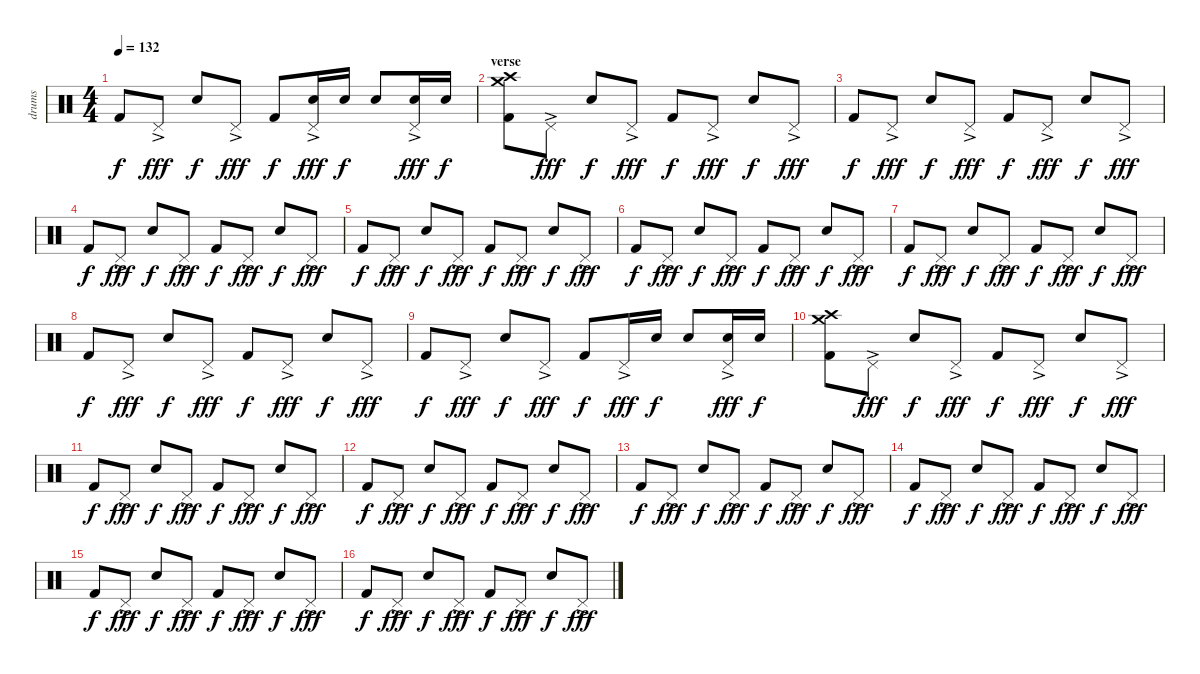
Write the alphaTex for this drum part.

\track ("drums" "drums") {instrument percussion}
\staff {score}
\articulation defaults
\ts (4 4)
\tempo 132
\clef neutral
\ks c "Kick (hit) 2".8{dy f} "Pedal Hi-Hat (hit)"{ac}.8{dy fff} "Snare (hit) 2".8{dy f} "Pedal Hi-Hat (hit)"{ac}.8{dy fff} "Kick (hit) 2".8{dy f}
("Pedal Hi-Hat (hit)"{ac} "Snare (hit) 2").16{dy fff} "Snare (hit) 2".16{dy f} "Snare (hit) 2".8 ("Pedal Hi-Hat (hit)"{ac} "Snare (hit) 2").16{dy fff} "Snare (hit) 2".16{dy f} |
\section ("" "verse")
("Kick (hit) 2" "Crash medium (hit)" "Crash high (hit)").8 "Pedal Hi-Hat (hit)"{ac}.8{dy fff} "Snare (hit) 2".8{dy f} "Pedal Hi-Hat (hit)"{ac}.8{dy fff} "Kick (hit) 2".8{dy f} "Pedal Hi-Hat (hit)"{ac}.8{dy fff} "Snare (hit) 2".8{dy f} "Pedal Hi-Hat (hit)"{ac}.8{dy fff} |
"Kick (hit) 2".8{dy f} "Pedal Hi-Hat (hit)"{ac}.8{dy fff} "Snare (hit) 2".8{dy f} "Pedal Hi-Hat (hit)"{ac}.8{dy fff} "Kick (hit) 2".8{dy f} "Pedal Hi-Hat (hit)"{ac}.8{dy fff} "Snare (hit) 2".8{dy f} "Pedal Hi-Hat (hit)"{ac}.8{dy fff} |
"Kick (hit) 2".8{dy f} "Pedal Hi-Hat (hit)"{ac}.8{dy fff} "Snare (hit) 2".8{dy f} "Pedal Hi-Hat (hit)"{ac}.8{dy fff} "Kick (hit) 2".8{dy f} "Pedal Hi-Hat (hit)"{ac}.8{dy fff} "Snare (hit) 2".8{dy f} "Pedal Hi-Hat (hit)"{ac}.8{dy fff} |
"Kick (hit) 2".8{dy f} "Pedal Hi-Hat (hit)"{ac}.8{dy fff} "Snare (hit) 2".8{dy f} "Pedal Hi-Hat (hit)"{ac}.8{dy fff} "Kick (hit) 2".8{dy f} "Pedal Hi-Hat (hit)"{ac}.8{dy fff} "Snare (hit) 2".8{dy f} "Pedal Hi-Hat (hit)"{ac}.8{dy fff} |
"Kick (hit) 2".8{dy f} "Pedal Hi-Hat (hit)"{ac}.8{dy fff} "Snare (hit) 2".8{dy f} "Pedal Hi-Hat (hit)"{ac}.8{dy fff} "Kick (hit) 2".8{dy f} "Pedal Hi-Hat (hit)"{ac}.8{dy fff} "Snare (hit) 2".8{dy f} "Pedal Hi-Hat (hit)"{ac}.8{dy fff} |
"Kick (hit) 2".8{dy f} "Pedal Hi-Hat (hit)"{ac}.8{dy fff} "Snare (hit) 2".8{dy f} "Pedal Hi-Hat (hit)"{ac}.8{dy fff} "Kick (hit) 2".8{dy f} "Pedal Hi-Hat (hit)"{ac}.8{dy fff} "Snare (hit) 2".8{dy f} "Pedal Hi-Hat (hit)"{ac}.8{dy fff} |
"Kick (hit) 2".8{dy f} "Pedal Hi-Hat (hit)"{ac}.8{dy fff} "Snare (hit) 2".8{dy f} "Pedal Hi-Hat (hit)"{ac}.8{dy fff} "Kick (hit) 2".8{dy f} "Pedal Hi-Hat (hit)"{ac}.8{dy fff} "Snare (hit) 2".8{dy f} "Pedal Hi-Hat (hit)"{ac}.8{dy fff} |
"Kick (hit) 2".8{dy f} "Pedal Hi-Hat (hit)"{ac}.8{dy fff} "Snare (hit) 2".8{dy f} "Pedal Hi-Hat (hit)"{ac}.8{dy fff} "Kick (hit) 2".8{dy f} "Pedal Hi-Hat (hit)"{ac}.16{dy fff} "Snare (hit) 2".16{dy f} "Snare (hit) 2".8 ("Pedal Hi-Hat (hit)"{ac} "Snare (hit) 2").16{dy fff} "Snare (hit) 2".16{dy f} |
("Kick (hit) 2" "Crash medium (hit)" "Crash high (hit)").8 "Pedal Hi-Hat (hit)"{ac}.8{dy fff} "Snare (hit) 2".8{dy f} "Pedal Hi-Hat (hit)"{ac}.8{dy fff} "Kick (hit) 2".8{dy f} "Pedal Hi-Hat (hit)"{ac}.8{dy fff} "Snare (hit) 2".8{dy f} "Pedal Hi-Hat (hit)"{ac}.8{dy fff} |
"Kick (hit) 2".8{dy f} "Pedal Hi-Hat (hit)"{ac}.8{dy fff} "Snare (hit) 2".8{dy f} "Pedal Hi-Hat (hit)"{ac}.8{dy fff} "Kick (hit) 2".8{dy f} "Pedal Hi-Hat (hit)"{ac}.8{dy fff} "Snare (hit) 2".8{dy f} "Pedal Hi-Hat (hit)"{ac}.8{dy fff} |
"Kick (hit) 2".8{dy f} "Pedal Hi-Hat (hit)"{ac}.8{dy fff} "Snare (hit) 2".8{dy f} "Pedal Hi-Hat (hit)"{ac}.8{dy fff} "Kick (hit) 2".8{dy f} "Pedal Hi-Hat (hit)"{ac}.8{dy fff} "Snare (hit) 2".8{dy f} "Pedal Hi-Hat (hit)"{ac}.8{dy fff} |
"Kick (hit) 2".8{dy f} "Pedal Hi-Hat (hit)"{ac}.8{dy fff} "Snare (hit) 2".8{dy f} "Pedal Hi-Hat (hit)"{ac}.8{dy fff} "Kick (hit) 2".8{dy f} "Pedal Hi-Hat (hit)"{ac}.8{dy fff} "Snare (hit) 2".8{dy f} "Pedal Hi-Hat (hit)"{ac}.8{dy fff} |
"Kick (hit) 2".8{dy f} "Pedal Hi-Hat (hit)"{ac}.8{dy fff} "Snare (hit) 2".8{dy f} "Pedal Hi-Hat (hit)"{ac}.8{dy fff} "Kick (hit) 2".8{dy f} "Pedal Hi-Hat (hit)"{ac}.8{dy fff} "Snare (hit) 2".8{dy f} "Pedal Hi-Hat (hit)"{ac}.8{dy fff} |
"Kick (hit) 2".8{dy f} "Pedal Hi-Hat (hit)"{ac}.8{dy fff} "Snare (hit) 2".8{dy f} "Pedal Hi-Hat (hit)"{ac}.8{dy fff} "Kick (hit) 2".8{dy f} "Pedal Hi-Hat (hit)"{ac}.8{dy fff} "Snare (hit) 2".8{dy f} "Pedal Hi-Hat (hit)"{ac}.8{dy fff} |
"Kick (hit) 2".8{dy f} "Pedal Hi-Hat (hit)"{ac}.8{dy fff} "Snare (hit) 2".8{dy f} "Pedal Hi-Hat (hit)"{ac}.8{dy fff} "Kick (hit) 2".8{dy f} "Pedal Hi-Hat (hit)"{ac}.8{dy fff} "Snare (hit) 2".8{dy f} "Pedal Hi-Hat (hit)"{ac}.8{dy fff}
